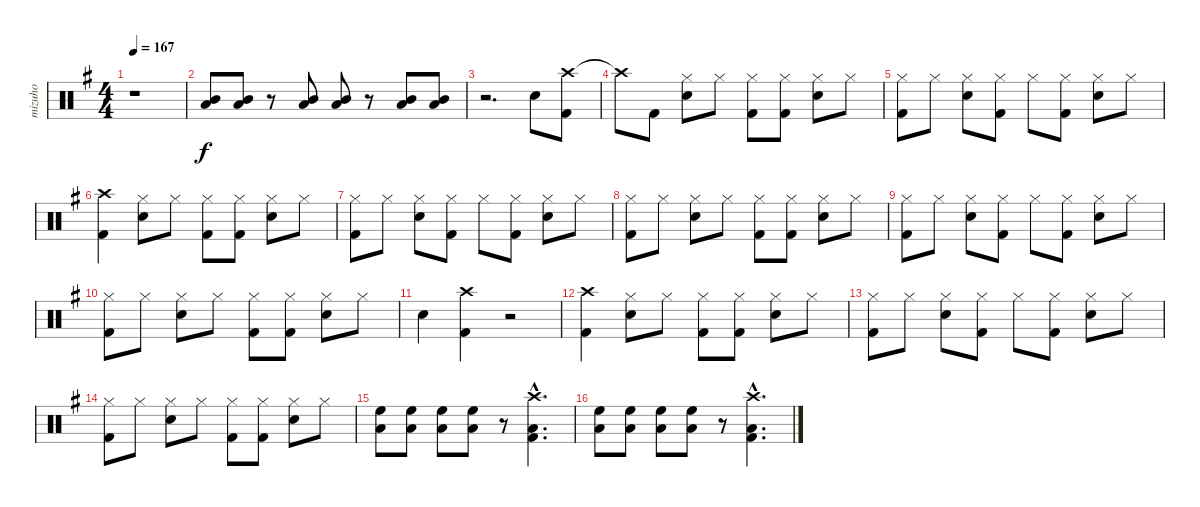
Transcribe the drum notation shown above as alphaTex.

\track ("mizuho" "mizuho") {instrument percussion}
\staff {score}
\articulation defaults
\ts (4 4)
\tempo 167
\clef neutral
\ks eminor
r.1{dy f} |
("Mid Tom (hit)" "Low Floor Tom (hit)").8 ("Mid Tom (hit)" "Low Floor Tom (hit)").8 r.8 ("Mid Tom (hit)" "Low Floor Tom (hit)").8 ("Mid Tom (hit)" "Low Floor Tom (hit)").8 r.8 ("Mid Tom (hit)" "Low Floor Tom (hit)").8 ("Mid Tom (hit)" "Low Floor Tom (hit)").8 |
r.2{d} "Electric Snare (hit)".8 ("Crash high (hit)" "Kick (hit) 2").8 |
"Crash high (hit)"{t}.8 "Kick (hit) 2".8 ("Hi-Hat (closed)" "Electric Snare (hit)").8 "Hi-Hat (closed)".8 ("Hi-Hat (closed)" "Kick (hit) 2").8 ("Hi-Hat (closed)" "Kick (hit) 2").8 ("Hi-Hat (closed)" "Electric Snare (hit)").8 "Hi-Hat (closed)".8 |
("Hi-Hat (closed)" "Kick (hit) 2").8 "Hi-Hat (closed)".8 ("Hi-Hat (closed)" "Electric Snare (hit)").8 ("Hi-Hat (closed)" "Kick (hit) 2").8 "Hi-Hat (closed)".8 ("Hi-Hat (closed)" "Kick (hit) 2").8 ("Hi-Hat (closed)" "Electric Snare (hit)").8 "Hi-Hat (closed)".8 |
("Crash high (hit)" "Kick (hit) 2").4 ("Hi-Hat (closed)" "Electric Snare (hit)").8 "Hi-Hat (closed)".8 ("Hi-Hat (closed)" "Kick (hit) 2").8 ("Hi-Hat (closed)" "Kick (hit) 2").8 ("Hi-Hat (closed)" "Electric Snare (hit)").8 "Hi-Hat (closed)".8 |
("Hi-Hat (closed)" "Kick (hit) 2").8 "Hi-Hat (closed)".8 ("Hi-Hat (closed)" "Electric Snare (hit)").8 ("Hi-Hat (closed)" "Kick (hit) 2").8 "Hi-Hat (closed)".8 ("Hi-Hat (closed)" "Kick (hit) 2").8 ("Hi-Hat (closed)" "Electric Snare (hit)").8 "Hi-Hat (closed)".8 |
("Hi-Hat (closed)" "Kick (hit) 2").8 "Hi-Hat (closed)".8 ("Hi-Hat (closed)" "Electric Snare (hit)").8 "Hi-Hat (closed)".8 ("Hi-Hat (closed)" "Kick (hit) 2").8 ("Hi-Hat (closed)" "Kick (hit) 2").8 ("Hi-Hat (closed)" "Electric Snare (hit)").8 "Hi-Hat (closed)".8 |
("Hi-Hat (closed)" "Kick (hit) 2").8 "Hi-Hat (closed)".8 ("Hi-Hat (closed)" "Electric Snare (hit)").8 ("Hi-Hat (closed)" "Kick (hit) 2").8 "Hi-Hat (closed)".8 ("Hi-Hat (closed)" "Kick (hit) 2").8 ("Hi-Hat (closed)" "Electric Snare (hit)").8 "Hi-Hat (closed)".8 |
("Hi-Hat (closed)" "Kick (hit) 2").8 "Hi-Hat (closed)".8 ("Hi-Hat (closed)" "Electric Snare (hit)").8 "Hi-Hat (closed)".8 ("Hi-Hat (closed)" "Kick (hit) 2").8 ("Hi-Hat (closed)" "Kick (hit) 2").8 ("Hi-Hat (closed)" "Electric Snare (hit)").8 "Hi-Hat (closed)".8 |
"Snare (hit) 2".4 ("Crash high (hit)" "Kick (hit) 2").4 r.2 |
("Crash high (hit)" "Kick (hit) 2").4 ("Hi-Hat (closed)" "Electric Snare (hit)").8 "Hi-Hat (closed)".8 ("Hi-Hat (closed)" "Kick (hit) 2").8 ("Hi-Hat (closed)" "Kick (hit) 2").8 ("Hi-Hat (closed)" "Electric Snare (hit)").8 "Hi-Hat (closed)".8 |
("Hi-Hat (closed)" "Kick (hit) 2").8 "Hi-Hat (closed)".8 ("Hi-Hat (closed)" "Electric Snare (hit)").8 ("Hi-Hat (closed)" "Kick (hit) 2").8 "Hi-Hat (closed)".8 ("Hi-Hat (closed)" "Kick (hit) 2").8 ("Hi-Hat (closed)" "Electric Snare (hit)").8 "Hi-Hat (closed)".8 |
("Hi-Hat (closed)" "Kick (hit) 2").8 "Hi-Hat (closed)".8 ("Hi-Hat (closed)" "Electric Snare (hit)").8 "Hi-Hat (closed)".8 ("Hi-Hat (closed)" "Kick (hit) 2").8 ("Hi-Hat (closed)" "Kick (hit) 2").8 ("Hi-Hat (closed)" "Electric Snare (hit)").8 "Hi-Hat (closed)".8 |
("High Floor Tom (hit)" "Low Tom (hit)").8 ("High Floor Tom (hit)" "Low Tom (hit)").8 ("High Floor Tom (hit)" "Low Tom (hit)").8 ("High Floor Tom (hit)" "Low Tom (hit)").8 r.8 ("Crash high (hit)"{hac} "Low Tom (hit)"{hac} "Kick (hit) 2"{hac}).4{d} |
("High Floor Tom (hit)" "Low Tom (hit)").8 ("High Floor Tom (hit)" "Low Tom (hit)").8 ("High Floor Tom (hit)" "Low Tom (hit)").8 ("High Floor Tom (hit)" "Low Tom (hit)").8 r.8 ("Crash high (hit)"{hac} "Low Tom (hit)"{hac} "Kick (hit) 2"{hac}).4{d}
